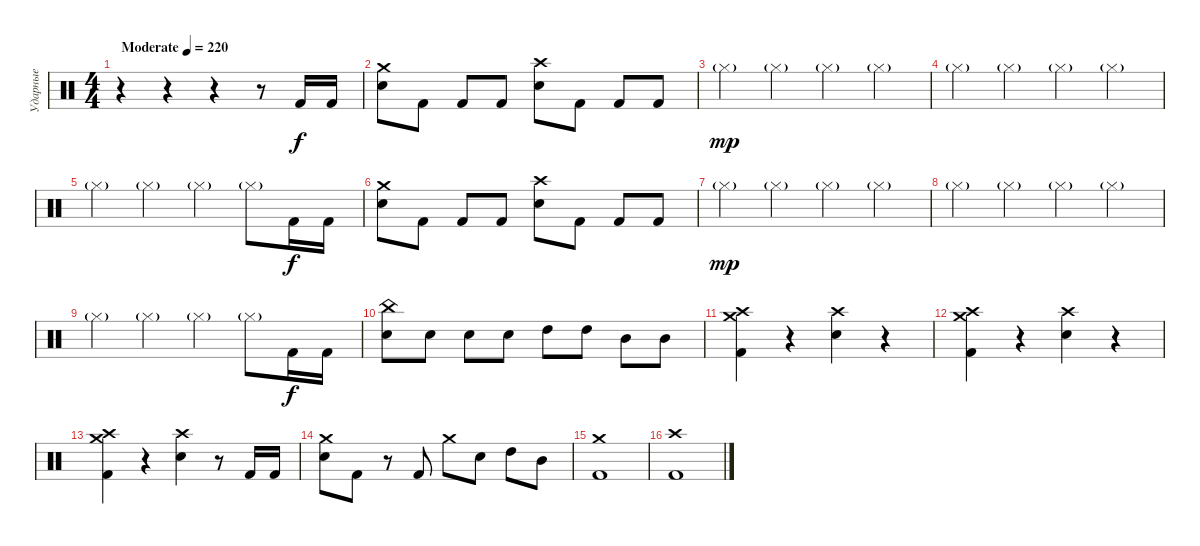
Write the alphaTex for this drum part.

\track ("Ударные" "Ударные") {instrument percussion}
\staff {score}
\articulation defaults
\ts (4 4)
\tempo (220 "Moderate")
\clef neutral
\ks c
r.4{dy f} r.4 r.4 r.8 "Kick (hit) 2".16 "Kick (hit) 2".16 |
("Crash medium (hit)" "Electric Snare (hit)").8 "Kick (hit) 2".8 "Kick (hit) 2".8 "Kick (hit) 2".8 ("Crash high (hit)" "Electric Snare (hit)").8 "Kick (hit) 2".8 "Kick (hit) 2".8 "Kick (hit) 2".8 |
"Hi-Hat (closed)"{g}.4{dy mp} "Hi-Hat (closed)"{g}.4 "Hi-Hat (closed)"{g}.4 "Hi-Hat (closed)"{g}.4 |
"Hi-Hat (closed)"{g}.4 "Hi-Hat (closed)"{g}.4 "Hi-Hat (closed)"{g}.4 "Hi-Hat (closed)"{g}.4 |
"Hi-Hat (closed)"{g}.4 "Hi-Hat (closed)"{g}.4 "Hi-Hat (closed)"{g}.4 "Hi-Hat (closed)"{g}.8 "Kick (hit) 2".16{dy f} "Kick (hit) 2".16 |
("Crash medium (hit)" "Electric Snare (hit)").8 "Kick (hit) 2".8 "Kick (hit) 2".8 "Kick (hit) 2".8 ("Crash high (hit)" "Electric Snare (hit)").8 "Kick (hit) 2".8 "Kick (hit) 2".8 "Kick (hit) 2".8 |
"Hi-Hat (closed)"{g}.4{dy mp} "Hi-Hat (closed)"{g}.4 "Hi-Hat (closed)"{g}.4 "Hi-Hat (closed)"{g}.4 |
"Hi-Hat (closed)"{g}.4 "Hi-Hat (closed)"{g}.4 "Hi-Hat (closed)"{g}.4 "Hi-Hat (closed)"{g}.4 |
"Hi-Hat (closed)"{g}.4 "Hi-Hat (closed)"{g}.4 "Hi-Hat (closed)"{g}.4 "Hi-Hat (closed)"{g}.8 "Kick (hit) 2".16{dy f} "Kick (hit) 2".16 |
("China (hit)" "Electric Snare (hit)").8 "Electric Snare (hit)".8 "Electric Snare (hit)".8 "Electric Snare (hit)".8 "High Tom (hit)".8 "High Tom (hit)".8 "Mid Tom (hit)".8 "Mid Tom (hit)".8 |
("Crash medium (hit)" "Crash high (hit)" "Kick (hit) 2").4 r.4 ("Crash high (hit)" "Electric Snare (hit)").4 r.4 |
("Crash medium (hit)" "Crash high (hit)" "Kick (hit) 2").4 r.4 ("Crash high (hit)" "Electric Snare (hit)").4 r.4 |
("Crash medium (hit)" "Crash high (hit)" "Kick (hit) 2").4 r.4 ("Crash high (hit)" "Electric Snare (hit)").4 r.8 "Kick (hit) 2".16 "Kick (hit) 2".16 |
("Crash medium (hit)" "Electric Snare (hit)").8 "Kick (hit) 2".8 r.8 "Kick (hit) 2".8 "Crash medium (hit)".8 "Electric Snare (hit)".8 "High Tom (hit)".8 "Mid Tom (hit)".8 |
("Crash medium (hit)" "Kick (hit) 2").1 |
("Crash high (hit)" "Kick (hit) 2").1
